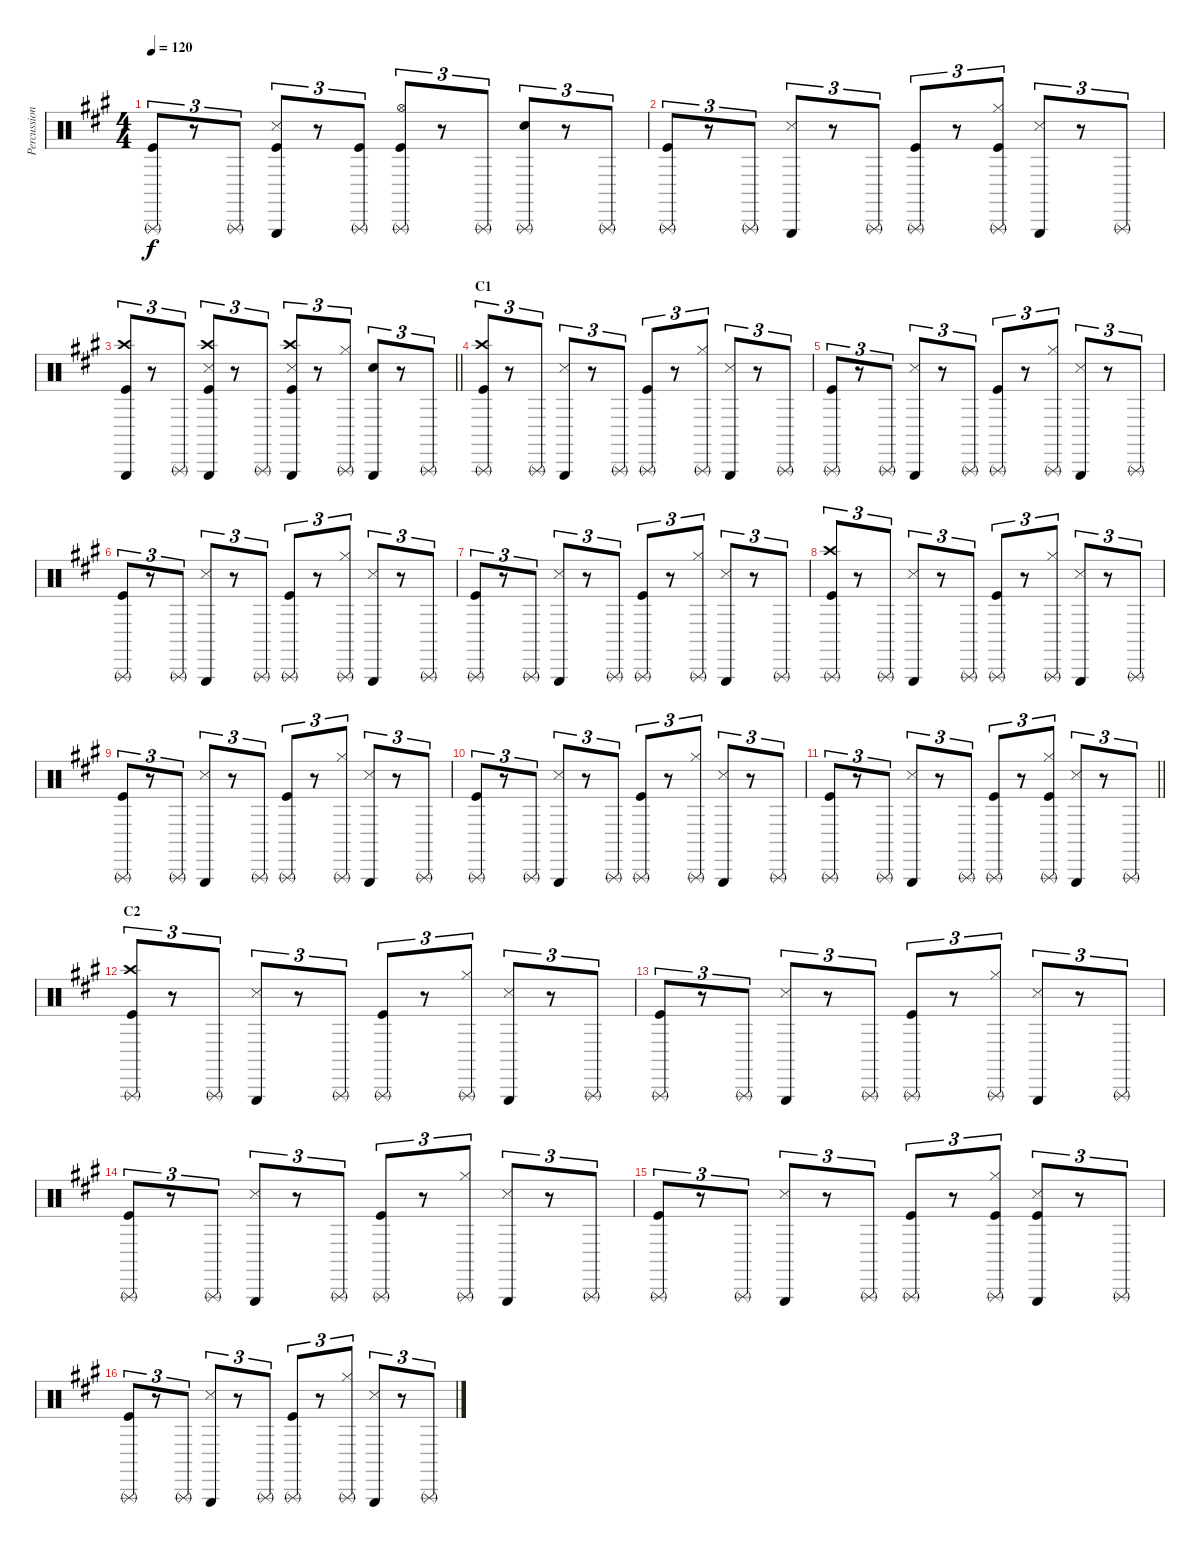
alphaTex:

\track ("Percussion" "Percussion") {instrument percussion}
\staff {score}
\articulation defaults
\ts (4 4)
\tempo 120
\clef neutral
\ks a
("Kick (hit)" "Triangle (rnute)").8{tu (3 2) dy f} r.8{tu (3 2)} "Triangle (rnute)".8{tu (3 2)} ("Snare (side stick) 3" "Kick (hit)" "Triangle (hit)").8{tu (3 2)} r.8{tu (3 2)} ("Kick (hit)" "Triangle (rnute)").8{tu (3 2)} ("Hi-Hat (open)" "Kick (hit)" "Triangle (rnute)").8{tu (3 2)} r.8{tu (3 2)} "Triangle (rnute)".8{tu (3 2)} ("Hand Clap (hit)" "Triangle (rnute)").8{tu (3 2)} r.8{tu (3 2)} "Triangle (rnute)".8{tu (3 2)} |
("Kick (hit)" "Triangle (rnute)").8{tu (3 2)} r.8{tu (3 2)} "Triangle (rnute)".8{tu (3 2)} ("Snare (side stick) 3" "Triangle (hit)").8{tu (3 2)} r.8{tu (3 2)} "Triangle (rnute)".8{tu (3 2)} ("Kick (hit)" "Triangle (rnute)").8{tu (3 2)} r.8{tu (3 2)} ("Hi-Hat (closed)" "Kick (hit)" "Triangle (rnute)").8{tu (3 2)} ("Snare (side stick) 3" "Triangle (hit)").8{tu (3 2)} r.8{tu (3 2)} "Triangle (rnute)".8{tu (3 2)} |
\barLineRight lightlight
("Crash high (hit)" "Kick (hit)" "Triangle (hit)").8{tu (3 2)} r.8{tu (3 2)} "Triangle (rnute)".8{tu (3 2)} ("Crash high (hit)" "Snare (side stick) 3" "Kick (hit)" "Triangle (hit)").8{tu (3 2)} r.8{tu (3 2)} "Triangle (rnute)".8{tu (3 2)} ("Crash high (hit)" "Snare (side stick) 3" "Kick (hit)" "Triangle (hit)").8{tu (3 2)} r.8{tu (3 2)} ("Hi-Hat (closed)" "Triangle (rnute)").8{tu (3 2)} ("Hand Clap (hit)" "Triangle (hit)").8{tu (3 2)} r.8{tu (3 2)} "Triangle (rnute)".8{tu (3 2)} |
\section ("" "C1")
("Crash high (hit)" "Kick (hit)" "Triangle (rnute)").8{tu (3 2)} r.8{tu (3 2)} "Triangle (rnute)".8{tu (3 2)} ("Snare (side stick) 3" "Triangle (hit)").8{tu (3 2)} r.8{tu (3 2)} "Triangle (rnute)".8{tu (3 2)} ("Kick (hit)" "Triangle (rnute)").8{tu (3 2)} r.8{tu (3 2)} ("Hi-Hat (closed)" "Triangle (rnute)").8{tu (3 2)} ("Snare (side stick) 3" "Triangle (hit)").8{tu (3 2)} r.8{tu (3 2)} "Triangle (rnute)".8{tu (3 2)} |
("Kick (hit)" "Triangle (rnute)").8{tu (3 2)} r.8{tu (3 2)} "Triangle (rnute)".8{tu (3 2)} ("Snare (side stick) 3" "Triangle (hit)").8{tu (3 2)} r.8{tu (3 2)} "Triangle (rnute)".8{tu (3 2)} ("Kick (hit)" "Triangle (rnute)").8{tu (3 2)} r.8{tu (3 2)} ("Hi-Hat (closed)" "Triangle (rnute)").8{tu (3 2)} ("Snare (side stick) 3" "Triangle (hit)").8{tu (3 2)} r.8{tu (3 2)} "Triangle (rnute)".8{tu (3 2)} |
("Kick (hit)" "Triangle (rnute)").8{tu (3 2)} r.8{tu (3 2)} "Triangle (rnute)".8{tu (3 2)} ("Snare (side stick) 3" "Triangle (hit)").8{tu (3 2)} r.8{tu (3 2)} "Triangle (rnute)".8{tu (3 2)} ("Kick (hit)" "Triangle (rnute)").8{tu (3 2)} r.8{tu (3 2)} ("Hi-Hat (closed)" "Triangle (rnute)").8{tu (3 2)} ("Snare (side stick) 3" "Triangle (hit)").8{tu (3 2)} r.8{tu (3 2)} "Triangle (rnute)".8{tu (3 2)} |
("Kick (hit)" "Triangle (rnute)").8{tu (3 2)} r.8{tu (3 2)} "Triangle (rnute)".8{tu (3 2)} ("Snare (side stick) 3" "Triangle (hit)").8{tu (3 2)} r.8{tu (3 2)} "Triangle (rnute)".8{tu (3 2)} ("Kick (hit)" "Triangle (rnute)").8{tu (3 2)} r.8{tu (3 2)} ("Hi-Hat (closed)" "Triangle (rnute)").8{tu (3 2)} ("Snare (side stick) 3" "Triangle (hit)").8{tu (3 2)} r.8{tu (3 2)} "Triangle (rnute)".8{tu (3 2)} |
("Crash high (hit)" "Kick (hit)" "Triangle (rnute)").8{tu (3 2)} r.8{tu (3 2)} "Triangle (rnute)".8{tu (3 2)} ("Snare (side stick) 3" "Triangle (hit)").8{tu (3 2)} r.8{tu (3 2)} "Triangle (rnute)".8{tu (3 2)} ("Kick (hit)" "Triangle (rnute)").8{tu (3 2)} r.8{tu (3 2)} ("Hi-Hat (closed)" "Triangle (rnute)").8{tu (3 2)} ("Snare (side stick) 3" "Triangle (hit)").8{tu (3 2)} r.8{tu (3 2)} "Triangle (rnute)".8{tu (3 2)} |
("Kick (hit)" "Triangle (rnute)").8{tu (3 2)} r.8{tu (3 2)} "Triangle (rnute)".8{tu (3 2)} ("Snare (side stick) 3" "Triangle (hit)").8{tu (3 2)} r.8{tu (3 2)} "Triangle (rnute)".8{tu (3 2)} ("Kick (hit)" "Triangle (rnute)").8{tu (3 2)} r.8{tu (3 2)} ("Hi-Hat (closed)" "Triangle (rnute)").8{tu (3 2)} ("Snare (side stick) 3" "Triangle (hit)").8{tu (3 2)} r.8{tu (3 2)} "Triangle (rnute)".8{tu (3 2)} |
("Kick (hit)" "Triangle (rnute)").8{tu (3 2)} r.8{tu (3 2)} "Triangle (rnute)".8{tu (3 2)} ("Snare (side stick) 3" "Triangle (hit)").8{tu (3 2)} r.8{tu (3 2)} "Triangle (rnute)".8{tu (3 2)} ("Kick (hit)" "Triangle (rnute)").8{tu (3 2)} r.8{tu (3 2)} ("Hi-Hat (closed)" "Triangle (rnute)").8{tu (3 2)} ("Snare (side stick) 3" "Triangle (hit)").8{tu (3 2)} r.8{tu (3 2)} "Triangle (rnute)".8{tu (3 2)} |
\barLineRight lightlight
("Kick (hit)" "Triangle (rnute)").8{tu (3 2)} r.8{tu (3 2)} "Triangle (rnute)".8{tu (3 2)} ("Snare (side stick) 3" "Triangle (hit)").8{tu (3 2)} r.8{tu (3 2)} "Triangle (rnute)".8{tu (3 2)} ("Kick (hit)" "Triangle (rnute)").8{tu (3 2)} r.8{tu (3 2)} ("Hi-Hat (closed)" "Kick (hit)" "Triangle (rnute)").8{tu (3 2)} ("Snare (side stick) 3" "Triangle (hit)").8{tu (3 2)} r.8{tu (3 2)} "Triangle (rnute)".8{tu (3 2)} |
\section ("" "C2")
("Crash high (hit)" "Kick (hit)" "Triangle (rnute)").8{tu (3 2)} r.8{tu (3 2)} "Triangle (rnute)".8{tu (3 2)} ("Snare (side stick) 3" "Triangle (hit)").8{tu (3 2)} r.8{tu (3 2)} "Triangle (rnute)".8{tu (3 2)} ("Kick (hit)" "Triangle (rnute)").8{tu (3 2)} r.8{tu (3 2)} ("Hi-Hat (closed)" "Triangle (rnute)").8{tu (3 2)} ("Snare (side stick) 3" "Triangle (hit)").8{tu (3 2)} r.8{tu (3 2)} "Triangle (rnute)".8{tu (3 2)} |
("Kick (hit)" "Triangle (rnute)").8{tu (3 2)} r.8{tu (3 2)} "Triangle (rnute)".8{tu (3 2)} ("Snare (side stick) 3" "Triangle (hit)").8{tu (3 2)} r.8{tu (3 2)} "Triangle (rnute)".8{tu (3 2)} ("Kick (hit)" "Triangle (rnute)").8{tu (3 2)} r.8{tu (3 2)} ("Hi-Hat (closed)" "Triangle (rnute)").8{tu (3 2)} ("Snare (side stick) 3" "Triangle (hit)").8{tu (3 2)} r.8{tu (3 2)} "Triangle (rnute)".8{tu (3 2)} |
("Kick (hit)" "Triangle (rnute)").8{tu (3 2)} r.8{tu (3 2)} "Triangle (rnute)".8{tu (3 2)} ("Snare (side stick) 3" "Triangle (hit)").8{tu (3 2)} r.8{tu (3 2)} "Triangle (rnute)".8{tu (3 2)} ("Kick (hit)" "Triangle (rnute)").8{tu (3 2)} r.8{tu (3 2)} ("Hi-Hat (closed)" "Triangle (rnute)").8{tu (3 2)} ("Snare (side stick) 3" "Triangle (hit)").8{tu (3 2)} r.8{tu (3 2)} "Triangle (rnute)".8{tu (3 2)} |
("Kick (hit)" "Triangle (rnute)").8{tu (3 2)} r.8{tu (3 2)} "Triangle (rnute)".8{tu (3 2)} ("Snare (side stick) 3" "Triangle (hit)").8{tu (3 2)} r.8{tu (3 2)} "Triangle (rnute)".8{tu (3 2)} ("Kick (hit)" "Triangle (rnute)").8{tu (3 2)} r.8{tu (3 2)} ("Hi-Hat (closed)" "Kick (hit)" "Triangle (rnute)").8{tu (3 2)} ("Snare (side stick) 3" "Kick (hit)" "Triangle (hit)").8{tu (3 2)} r.8{tu (3 2)} "Triangle (rnute)".8{tu (3 2)} |
("Kick (hit)" "Triangle (rnute)").8{tu (3 2)} r.8{tu (3 2)} "Triangle (rnute)".8{tu (3 2)} ("Snare (side stick) 3" "Triangle (hit)").8{tu (3 2)} r.8{tu (3 2)} "Triangle (rnute)".8{tu (3 2)} ("Kick (hit)" "Triangle (rnute)").8{tu (3 2)} r.8{tu (3 2)} ("Hi-Hat (closed)" "Triangle (rnute)").8{tu (3 2)} ("Snare (side stick) 3" "Triangle (hit)").8{tu (3 2)} r.8{tu (3 2)} "Triangle (rnute)".8{tu (3 2)}
